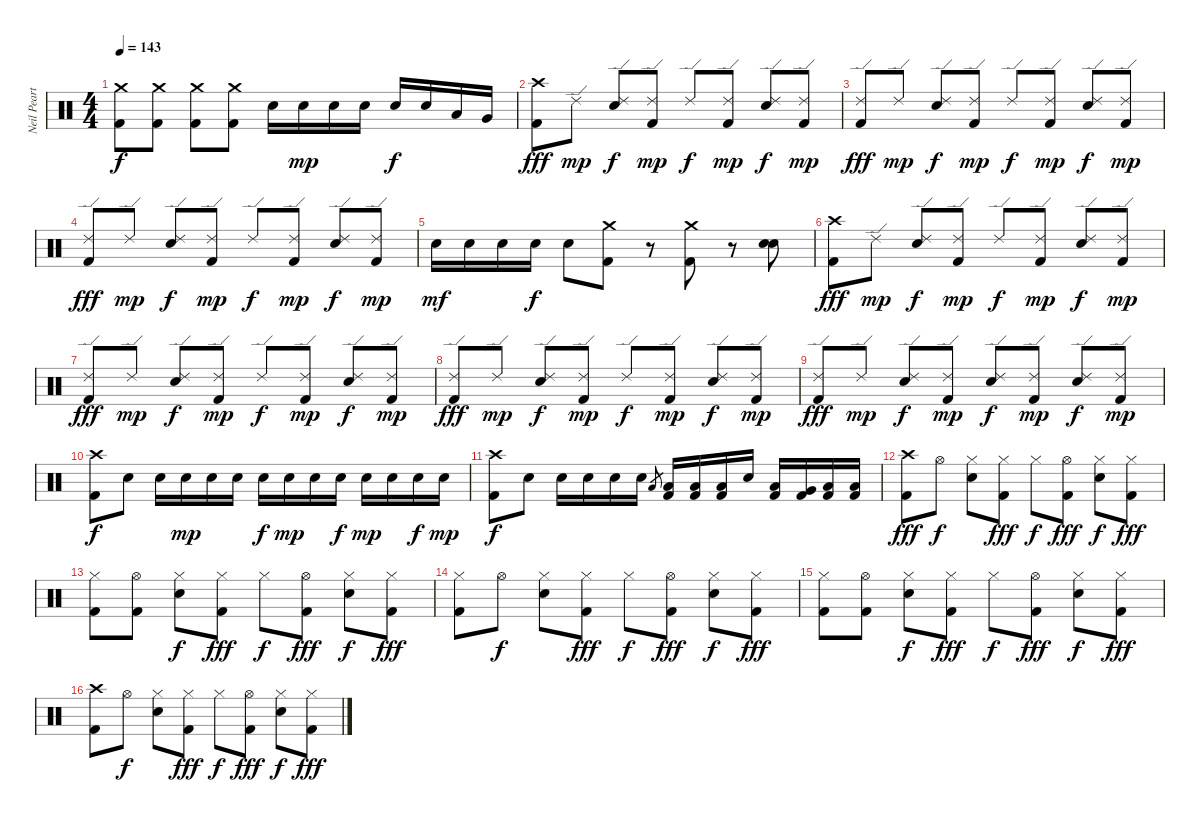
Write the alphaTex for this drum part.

\track ("Neil Peart" "Neil Peart") {instrument percussion}
\staff {score}
\articulation defaults
\ts (4 4)
\tempo 143
\clef neutral
\ks c
("Crash medium (hit)" "Kick (hit) 2").8{dy f} ("Crash medium (hit)" "Kick (hit) 2").8 ("Crash medium (hit)" "Kick (hit) 2").8 ("Crash medium (hit)" "Kick (hit) 2").8 "Electric Snare (hit)".16 "Electric Snare (hit)".16{dy mp} "Electric Snare (hit)".16 "Electric Snare (hit)".16 "Electric Snare (hit)".16{dy f} "Electric Snare (hit)".16 "Low Tom (hit)".16 "Very Low Tom (hit)".16 |
("Kick (hit) 2" "Crash high (hit)").8{dy fff} "Ride (edge) 2".8{dy mp} ("Electric Snare (hit)" "Ride (edge) 2").8{dy f} ("Kick (hit) 2" "Ride (edge) 2").8{dy mp} "Ride (edge) 2".8{dy f} ("Kick (hit) 2" "Ride (edge) 2").8{dy mp} ("Electric Snare (hit)" "Ride (edge) 2").8{dy f} ("Kick (hit) 2" "Ride (edge) 2").8{dy mp} |
("Kick (hit) 2" "Ride (edge) 2").8{dy fff} "Ride (edge) 2".8{dy mp} ("Electric Snare (hit)" "Ride (edge) 2").8{dy f} ("Kick (hit) 2" "Ride (edge) 2").8{dy mp} "Ride (edge) 2".8{dy f} ("Kick (hit) 2" "Ride (edge) 2").8{dy mp} ("Electric Snare (hit)" "Ride (edge) 2").8{dy f} ("Kick (hit) 2" "Ride (edge) 2").8{dy mp} |
("Kick (hit) 2" "Ride (edge) 2").8{dy fff} "Ride (edge) 2".8{dy mp} ("Electric Snare (hit)" "Ride (edge) 2").8{dy f} ("Kick (hit) 2" "Ride (edge) 2").8{dy mp} "Ride (edge) 2".8{dy f} ("Kick (hit) 2" "Ride (edge) 2").8{dy mp} ("Electric Snare (hit)" "Ride (edge) 2").8{dy f} ("Kick (hit) 2" "Ride (edge) 2").8{dy mp} |
"Electric Snare (hit)".16{dy mf} "Electric Snare (hit)".16 "Electric Snare (hit)".16 "Electric Snare (hit)".16{dy f} "Electric Snare (hit)".8 ("Crash medium (hit)" "Kick (hit) 2").8 r.8 ("Crash medium (hit)" "Kick (hit) 2").8 r.8 ("Snare (hit) 2" "Electric Snare (hit)").8 |
("Kick (hit) 2" "Crash high (hit)").8{dy fff} "Ride (edge) 2".8{dy mp} ("Electric Snare (hit)" "Ride (edge) 2").8{dy f} ("Kick (hit) 2" "Ride (edge) 2").8{dy mp} "Ride (edge) 2".8{dy f} ("Kick (hit) 2" "Ride (edge) 2").8{dy mp} ("Electric Snare (hit)" "Ride (edge) 2").8{dy f} ("Kick (hit) 2" "Ride (edge) 2").8{dy mp} |
("Kick (hit) 2" "Ride (edge) 2").8{dy fff} "Ride (edge) 2".8{dy mp} ("Electric Snare (hit)" "Ride (edge) 2").8{dy f} ("Kick (hit) 2" "Ride (edge) 2").8{dy mp} "Ride (edge) 2".8{dy f} ("Kick (hit) 2" "Ride (edge) 2").8{dy mp} ("Electric Snare (hit)" "Ride (edge) 2").8{dy f} ("Kick (hit) 2" "Ride (edge) 2").8{dy mp} |
("Kick (hit) 2" "Ride (edge) 2").8{dy fff} "Ride (edge) 2".8{dy mp} ("Electric Snare (hit)" "Ride (edge) 2").8{dy f} ("Kick (hit) 2" "Ride (edge) 2").8{dy mp} "Ride (edge) 2".8{dy f} ("Kick (hit) 2" "Ride (edge) 2").8{dy mp} ("Electric Snare (hit)" "Ride (edge) 2").8{dy f} ("Kick (hit) 2" "Ride (edge) 2").8{dy mp} |
("Kick (hit) 2" "Ride (edge) 2").8{dy fff} "Ride (edge) 2".8{dy mp} ("Electric Snare (hit)" "Ride (edge) 2").8{dy f} ("Kick (hit) 2" "Ride (edge) 2").8{dy mp} ("Electric Snare (hit)" "Ride (edge) 2").8{dy f} ("Kick (hit) 2" "Ride (edge) 2").8{dy mp} ("Electric Snare (hit)" "Ride (edge) 2").8{dy f} ("Kick (hit) 2" "Ride (edge) 2").8{dy mp} |
("Crash high (hit)" "Kick (hit) 2").8{dy f} "Electric Snare (hit)".8 "Electric Snare (hit)".16 "Electric Snare (hit)".16{dy mp} "Electric Snare (hit)".16 "Electric Snare (hit)".16 "Electric Snare (hit)".16{dy f} "Electric Snare (hit)".16{dy mp} "Electric Snare (hit)".16 "Electric Snare (hit)".16{dy f} "Electric Snare (hit)".16{dy mp} "Electric Snare (hit)".16 "Electric Snare (hit)".16{dy f} "Electric Snare (hit)".16{dy mp} |
("Crash high (hit)" "Kick (hit) 2").8{dy f} "Electric Snare (hit)".8 "Electric Snare (hit)".16 "Electric Snare (hit)".16 "Electric Snare (hit)".16 "Electric Snare (hit)".16 "Low Tom (hit)".8{gr} ("Kick (hit) 2" "Low Tom (hit)").16 ("Kick (hit) 2" "Low Tom (hit)").16 ("Kick (hit) 2" "Low Tom (hit)").16 "Electric Snare (hit)".16 ("Kick (hit) 2" "Low Tom (hit)").16 ("Kick (hit) 2" "Very Low Tom (hit)").16 ("Kick (hit) 2" "Low Floor Tom (hit)").16 ("Kick (hit) 2" "Low Floor Tom (hit)").16 |
("Kick (hit) 2" "Crash high (hit)").8{dy fff} "Hi-Hat (open)".8{dy f} ("Electric Snare (hit)" "Hi-Hat (closed)").8 ("Kick (hit) 2" "Hi-Hat (closed)").8{dy fff} "Hi-Hat (closed)".8{dy f} ("Kick (hit) 2" "Hi-Hat (open)").8{dy fff} ("Electric Snare (hit)" "Hi-Hat (closed)").8{dy f} ("Kick (hit) 2" "Hi-Hat (closed)").8{dy fff} |
("Kick (hit) 2" "Hi-Hat (closed)").8 ("Kick (hit) 2" "Hi-Hat (open)").8 ("Electric Snare (hit)" "Hi-Hat (closed)").8{dy f} ("Kick (hit) 2" "Hi-Hat (closed)").8{dy fff} "Hi-Hat (closed)".8{dy f} ("Kick (hit) 2" "Hi-Hat (open)").8{dy fff} ("Electric Snare (hit)" "Hi-Hat (closed)").8{dy f} ("Kick (hit) 2" "Hi-Hat (closed)").8{dy fff} |
("Kick (hit) 2" "Hi-Hat (closed)").8 "Hi-Hat (open)".8{dy f} ("Electric Snare (hit)" "Hi-Hat (closed)").8 ("Kick (hit) 2" "Hi-Hat (closed)").8{dy fff} "Hi-Hat (closed)".8{dy f} ("Kick (hit) 2" "Hi-Hat (open)").8{dy fff} ("Electric Snare (hit)" "Hi-Hat (closed)").8{dy f} ("Kick (hit) 2" "Hi-Hat (closed)").8{dy fff} |
("Kick (hit) 2" "Hi-Hat (closed)").8 ("Kick (hit) 2" "Hi-Hat (open)").8 ("Electric Snare (hit)" "Hi-Hat (closed)").8{dy f} ("Kick (hit) 2" "Hi-Hat (closed)").8{dy fff} "Hi-Hat (closed)".8{dy f} ("Kick (hit) 2" "Hi-Hat (open)").8{dy fff} ("Electric Snare (hit)" "Hi-Hat (closed)").8{dy f} ("Kick (hit) 2" "Hi-Hat (closed)").8{dy fff} |
("Kick (hit) 2" "Crash high (hit)").8 "Hi-Hat (open)".8{dy f} ("Electric Snare (hit)" "Hi-Hat (closed)").8 ("Kick (hit) 2" "Hi-Hat (closed)").8{dy fff} "Hi-Hat (closed)".8{dy f} ("Kick (hit) 2" "Hi-Hat (open)").8{dy fff} ("Electric Snare (hit)" "Hi-Hat (closed)").8{dy f} ("Kick (hit) 2" "Hi-Hat (closed)").8{dy fff}
